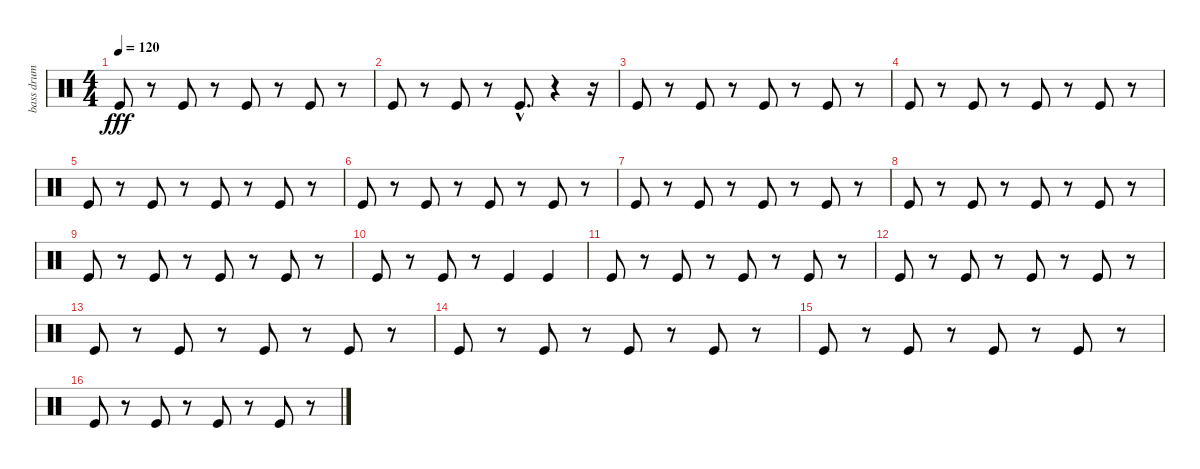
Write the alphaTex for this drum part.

\track ("bass drum" "bass drum") {instrument percussion}
\staff {score}
\articulation defaults
\ts (4 4)
\tempo 120
\clef neutral
\ks c "Kick (hit)".8{dy fff}
r.8 "Kick (hit)".8 r.8 "Kick (hit)".8 r.8 "Kick (hit)".8 r.8 |
"Kick (hit)".8 r.8 "Kick (hit)".8 r.8 "Kick (hit)"{hac}.8{d} r.4 r.16 |
"Kick (hit)".8 r.8 "Kick (hit)".8 r.8 "Kick (hit)".8 r.8 "Kick (hit)".8 r.8 |
"Kick (hit)".8 r.8 "Kick (hit)".8 r.8 "Kick (hit)".8 r.8 "Kick (hit)".8 r.8 |
"Kick (hit)".8 r.8 "Kick (hit)".8 r.8 "Kick (hit)".8 r.8 "Kick (hit)".8 r.8 |
"Kick (hit)".8 r.8 "Kick (hit)".8 r.8 "Kick (hit)".8 r.8 "Kick (hit)".8 r.8 |
"Kick (hit)".8 r.8 "Kick (hit)".8 r.8 "Kick (hit)".8 r.8 "Kick (hit)".8 r.8 |
"Kick (hit)".8 r.8 "Kick (hit)".8 r.8 "Kick (hit)".8 r.8 "Kick (hit)".8 r.8 |
"Kick (hit)".8 r.8 "Kick (hit)".8 r.8 "Kick (hit)".8 r.8 "Kick (hit)".8 r.8 |
"Kick (hit)".8 r.8 "Kick (hit)".8 r.8 "Kick (hit)".4 "Kick (hit)".4 |
"Kick (hit)".8 r.8 "Kick (hit)".8 r.8 "Kick (hit)".8 r.8 "Kick (hit)".8 r.8 |
"Kick (hit)".8 r.8 "Kick (hit)".8 r.8 "Kick (hit)".8 r.8 "Kick (hit)".8 r.8 |
"Kick (hit)".8 r.8 "Kick (hit)".8 r.8 "Kick (hit)".8 r.8 "Kick (hit)".8 r.8 |
"Kick (hit)".8 r.8 "Kick (hit)".8 r.8 "Kick (hit)".8 r.8 "Kick (hit)".8 r.8 |
"Kick (hit)".8 r.8 "Kick (hit)".8 r.8 "Kick (hit)".8 r.8 "Kick (hit)".8 r.8 |
"Kick (hit)".8 r.8 "Kick (hit)".8 r.8 "Kick (hit)".8 r.8 "Kick (hit)".8 r.8
